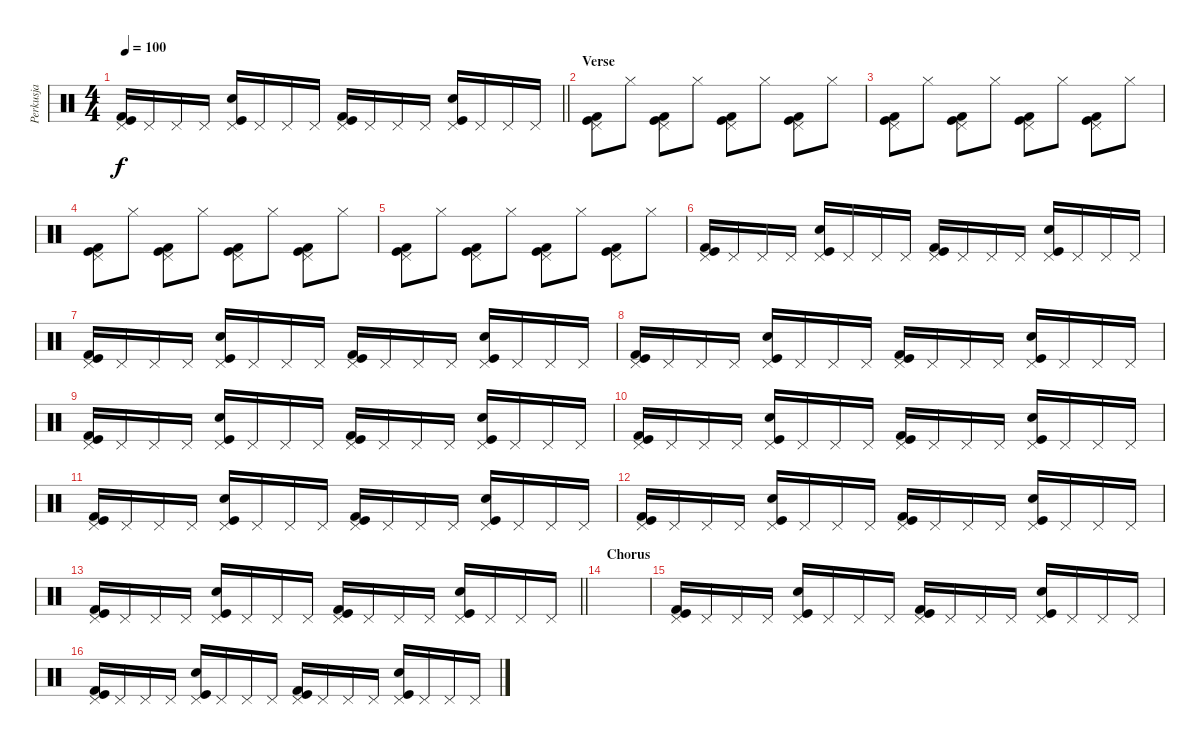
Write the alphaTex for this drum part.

\track ("Perkusja" "Perkusja") {instrument percussion}
\staff {score}
\articulation defaults
\ts (4 4)
\tempo 100
\clef neutral
\barLineRight lightlight
\ks c
("Pedal Hi-Hat (hit)" "Kick (hit)" "Kick (hit) 2").16{dy f} "Pedal Hi-Hat (hit)".16 "Pedal Hi-Hat (hit)".16 "Pedal Hi-Hat (hit)".16 ("Pedal Hi-Hat (hit)" "Hand Clap (hit)" "Kick (hit)").16 "Pedal Hi-Hat (hit)".16 "Pedal Hi-Hat (hit)".16 "Pedal Hi-Hat (hit)".16 ("Pedal Hi-Hat (hit)" "Kick (hit)" "Kick (hit) 2").16 "Pedal Hi-Hat (hit)".16 "Pedal Hi-Hat (hit)".16 "Pedal Hi-Hat (hit)".16 ("Pedal Hi-Hat (hit)" "Hand Clap (hit)" "Kick (hit)").16 "Pedal Hi-Hat (hit)".16 "Pedal Hi-Hat (hit)".16 "Pedal Hi-Hat (hit)".16 |
\section ("" "Verse")
("Pedal Hi-Hat (hit)" "Kick (hit) 2" "Kick (hit)").8 "Hi-Hat (closed)".8 ("Pedal Hi-Hat (hit)" "Kick (hit) 2" "Kick (hit)").8 "Hi-Hat (closed)".8 ("Pedal Hi-Hat (hit)" "Kick (hit) 2" "Kick (hit)").8 "Hi-Hat (closed)".8 ("Pedal Hi-Hat (hit)" "Kick (hit) 2" "Kick (hit)").8 "Hi-Hat (closed)".8 |
("Pedal Hi-Hat (hit)" "Kick (hit) 2" "Kick (hit)").8 "Hi-Hat (closed)".8 ("Pedal Hi-Hat (hit)" "Kick (hit) 2" "Kick (hit)").8 "Hi-Hat (closed)".8 ("Pedal Hi-Hat (hit)" "Kick (hit) 2" "Kick (hit)").8 "Hi-Hat (closed)".8 ("Pedal Hi-Hat (hit)" "Kick (hit) 2" "Kick (hit)").8 "Hi-Hat (closed)".8 |
("Pedal Hi-Hat (hit)" "Kick (hit) 2" "Kick (hit)").8 "Hi-Hat (closed)".8 ("Pedal Hi-Hat (hit)" "Kick (hit) 2" "Kick (hit)").8 "Hi-Hat (closed)".8 ("Pedal Hi-Hat (hit)" "Kick (hit) 2" "Kick (hit)").8 "Hi-Hat (closed)".8 ("Pedal Hi-Hat (hit)" "Kick (hit) 2" "Kick (hit)").8 "Hi-Hat (closed)".8 |
("Pedal Hi-Hat (hit)" "Kick (hit) 2" "Kick (hit)").8 "Hi-Hat (closed)".8 ("Pedal Hi-Hat (hit)" "Kick (hit) 2" "Kick (hit)").8 "Hi-Hat (closed)".8 ("Pedal Hi-Hat (hit)" "Kick (hit) 2" "Kick (hit)").8 "Hi-Hat (closed)".8 ("Pedal Hi-Hat (hit)" "Kick (hit) 2" "Kick (hit)").8 "Hi-Hat (closed)".8 |
("Pedal Hi-Hat (hit)" "Kick (hit)" "Kick (hit) 2").16 "Pedal Hi-Hat (hit)".16 "Pedal Hi-Hat (hit)".16 "Pedal Hi-Hat (hit)".16 ("Pedal Hi-Hat (hit)" "Hand Clap (hit)" "Kick (hit)").16 "Pedal Hi-Hat (hit)".16 "Pedal Hi-Hat (hit)".16 "Pedal Hi-Hat (hit)".16 ("Pedal Hi-Hat (hit)" "Kick (hit)" "Kick (hit) 2").16 "Pedal Hi-Hat (hit)".16 "Pedal Hi-Hat (hit)".16 "Pedal Hi-Hat (hit)".16 ("Pedal Hi-Hat (hit)" "Hand Clap (hit)" "Kick (hit)").16 "Pedal Hi-Hat (hit)".16 "Pedal Hi-Hat (hit)".16 "Pedal Hi-Hat (hit)".16 |
("Pedal Hi-Hat (hit)" "Kick (hit)" "Kick (hit) 2").16 "Pedal Hi-Hat (hit)".16 "Pedal Hi-Hat (hit)".16 "Pedal Hi-Hat (hit)".16 ("Pedal Hi-Hat (hit)" "Hand Clap (hit)" "Kick (hit)").16 "Pedal Hi-Hat (hit)".16 "Pedal Hi-Hat (hit)".16 "Pedal Hi-Hat (hit)".16 ("Pedal Hi-Hat (hit)" "Kick (hit)" "Kick (hit) 2").16 "Pedal Hi-Hat (hit)".16 "Pedal Hi-Hat (hit)".16 "Pedal Hi-Hat (hit)".16 ("Pedal Hi-Hat (hit)" "Hand Clap (hit)" "Kick (hit)").16 "Pedal Hi-Hat (hit)".16 "Pedal Hi-Hat (hit)".16 "Pedal Hi-Hat (hit)".16 |
("Pedal Hi-Hat (hit)" "Kick (hit)" "Kick (hit) 2").16 "Pedal Hi-Hat (hit)".16 "Pedal Hi-Hat (hit)".16 "Pedal Hi-Hat (hit)".16 ("Pedal Hi-Hat (hit)" "Hand Clap (hit)" "Kick (hit)").16 "Pedal Hi-Hat (hit)".16 "Pedal Hi-Hat (hit)".16 "Pedal Hi-Hat (hit)".16 ("Pedal Hi-Hat (hit)" "Kick (hit)" "Kick (hit) 2").16 "Pedal Hi-Hat (hit)".16 "Pedal Hi-Hat (hit)".16 "Pedal Hi-Hat (hit)".16 ("Pedal Hi-Hat (hit)" "Hand Clap (hit)" "Kick (hit)").16 "Pedal Hi-Hat (hit)".16 "Pedal Hi-Hat (hit)".16 "Pedal Hi-Hat (hit)".16 |
("Pedal Hi-Hat (hit)" "Kick (hit)" "Kick (hit) 2").16 "Pedal Hi-Hat (hit)".16 "Pedal Hi-Hat (hit)".16 "Pedal Hi-Hat (hit)".16 ("Pedal Hi-Hat (hit)" "Hand Clap (hit)" "Kick (hit)").16 "Pedal Hi-Hat (hit)".16 "Pedal Hi-Hat (hit)".16 "Pedal Hi-Hat (hit)".16 ("Pedal Hi-Hat (hit)" "Kick (hit)" "Kick (hit) 2").16 "Pedal Hi-Hat (hit)".16 "Pedal Hi-Hat (hit)".16 "Pedal Hi-Hat (hit)".16 ("Pedal Hi-Hat (hit)" "Hand Clap (hit)" "Kick (hit)").16 "Pedal Hi-Hat (hit)".16 "Pedal Hi-Hat (hit)".16 "Pedal Hi-Hat (hit)".16 |
("Pedal Hi-Hat (hit)" "Kick (hit)" "Kick (hit) 2").16 "Pedal Hi-Hat (hit)".16 "Pedal Hi-Hat (hit)".16 "Pedal Hi-Hat (hit)".16 ("Pedal Hi-Hat (hit)" "Hand Clap (hit)" "Kick (hit)").16 "Pedal Hi-Hat (hit)".16 "Pedal Hi-Hat (hit)".16 "Pedal Hi-Hat (hit)".16 ("Pedal Hi-Hat (hit)" "Kick (hit)" "Kick (hit) 2").16 "Pedal Hi-Hat (hit)".16 "Pedal Hi-Hat (hit)".16 "Pedal Hi-Hat (hit)".16 ("Pedal Hi-Hat (hit)" "Hand Clap (hit)" "Kick (hit)").16 "Pedal Hi-Hat (hit)".16 "Pedal Hi-Hat (hit)".16 "Pedal Hi-Hat (hit)".16 |
("Pedal Hi-Hat (hit)" "Kick (hit)" "Kick (hit) 2").16 "Pedal Hi-Hat (hit)".16 "Pedal Hi-Hat (hit)".16 "Pedal Hi-Hat (hit)".16 ("Pedal Hi-Hat (hit)" "Hand Clap (hit)" "Kick (hit)").16 "Pedal Hi-Hat (hit)".16 "Pedal Hi-Hat (hit)".16 "Pedal Hi-Hat (hit)".16 ("Pedal Hi-Hat (hit)" "Kick (hit)" "Kick (hit) 2").16 "Pedal Hi-Hat (hit)".16 "Pedal Hi-Hat (hit)".16 "Pedal Hi-Hat (hit)".16 ("Pedal Hi-Hat (hit)" "Hand Clap (hit)" "Kick (hit)").16 "Pedal Hi-Hat (hit)".16 "Pedal Hi-Hat (hit)".16 "Pedal Hi-Hat (hit)".16 |
("Pedal Hi-Hat (hit)" "Kick (hit)" "Kick (hit) 2").16 "Pedal Hi-Hat (hit)".16 "Pedal Hi-Hat (hit)".16 "Pedal Hi-Hat (hit)".16 ("Pedal Hi-Hat (hit)" "Hand Clap (hit)" "Kick (hit)").16 "Pedal Hi-Hat (hit)".16 "Pedal Hi-Hat (hit)".16 "Pedal Hi-Hat (hit)".16 ("Pedal Hi-Hat (hit)" "Kick (hit)" "Kick (hit) 2").16 "Pedal Hi-Hat (hit)".16 "Pedal Hi-Hat (hit)".16 "Pedal Hi-Hat (hit)".16 ("Pedal Hi-Hat (hit)" "Hand Clap (hit)" "Kick (hit)").16 "Pedal Hi-Hat (hit)".16 "Pedal Hi-Hat (hit)".16 "Pedal Hi-Hat (hit)".16 |
\barLineRight lightlight
("Pedal Hi-Hat (hit)" "Kick (hit)" "Kick (hit) 2").16 "Pedal Hi-Hat (hit)".16 "Pedal Hi-Hat (hit)".16 "Pedal Hi-Hat (hit)".16 ("Pedal Hi-Hat (hit)" "Hand Clap (hit)" "Kick (hit)").16 "Pedal Hi-Hat (hit)".16 "Pedal Hi-Hat (hit)".16 "Pedal Hi-Hat (hit)".16 ("Pedal Hi-Hat (hit)" "Kick (hit)" "Kick (hit) 2").16 "Pedal Hi-Hat (hit)".16 "Pedal Hi-Hat (hit)".16 "Pedal Hi-Hat (hit)".16 ("Pedal Hi-Hat (hit)" "Hand Clap (hit)" "Kick (hit)").16 "Pedal Hi-Hat (hit)".16 "Pedal Hi-Hat (hit)".16 "Pedal Hi-Hat (hit)".16 |
\section ("" "Chorus")
|
("Pedal Hi-Hat (hit)" "Kick (hit)" "Kick (hit) 2").16 "Pedal Hi-Hat (hit)".16 "Pedal Hi-Hat (hit)".16 "Pedal Hi-Hat (hit)".16 ("Pedal Hi-Hat (hit)" "Hand Clap (hit)" "Kick (hit)").16 "Pedal Hi-Hat (hit)".16 "Pedal Hi-Hat (hit)".16 "Pedal Hi-Hat (hit)".16 ("Pedal Hi-Hat (hit)" "Kick (hit)" "Kick (hit) 2").16 "Pedal Hi-Hat (hit)".16 "Pedal Hi-Hat (hit)".16 "Pedal Hi-Hat (hit)".16 ("Pedal Hi-Hat (hit)" "Hand Clap (hit)" "Kick (hit)").16 "Pedal Hi-Hat (hit)".16 "Pedal Hi-Hat (hit)".16 "Pedal Hi-Hat (hit)".16 |
("Pedal Hi-Hat (hit)" "Kick (hit)" "Kick (hit) 2").16 "Pedal Hi-Hat (hit)".16 "Pedal Hi-Hat (hit)".16 "Pedal Hi-Hat (hit)".16 ("Pedal Hi-Hat (hit)" "Hand Clap (hit)" "Kick (hit)").16 "Pedal Hi-Hat (hit)".16 "Pedal Hi-Hat (hit)".16 "Pedal Hi-Hat (hit)".16 ("Pedal Hi-Hat (hit)" "Kick (hit)" "Kick (hit) 2").16 "Pedal Hi-Hat (hit)".16 "Pedal Hi-Hat (hit)".16 "Pedal Hi-Hat (hit)".16 ("Pedal Hi-Hat (hit)" "Hand Clap (hit)" "Kick (hit)").16 "Pedal Hi-Hat (hit)".16 "Pedal Hi-Hat (hit)".16 "Pedal Hi-Hat (hit)".16
